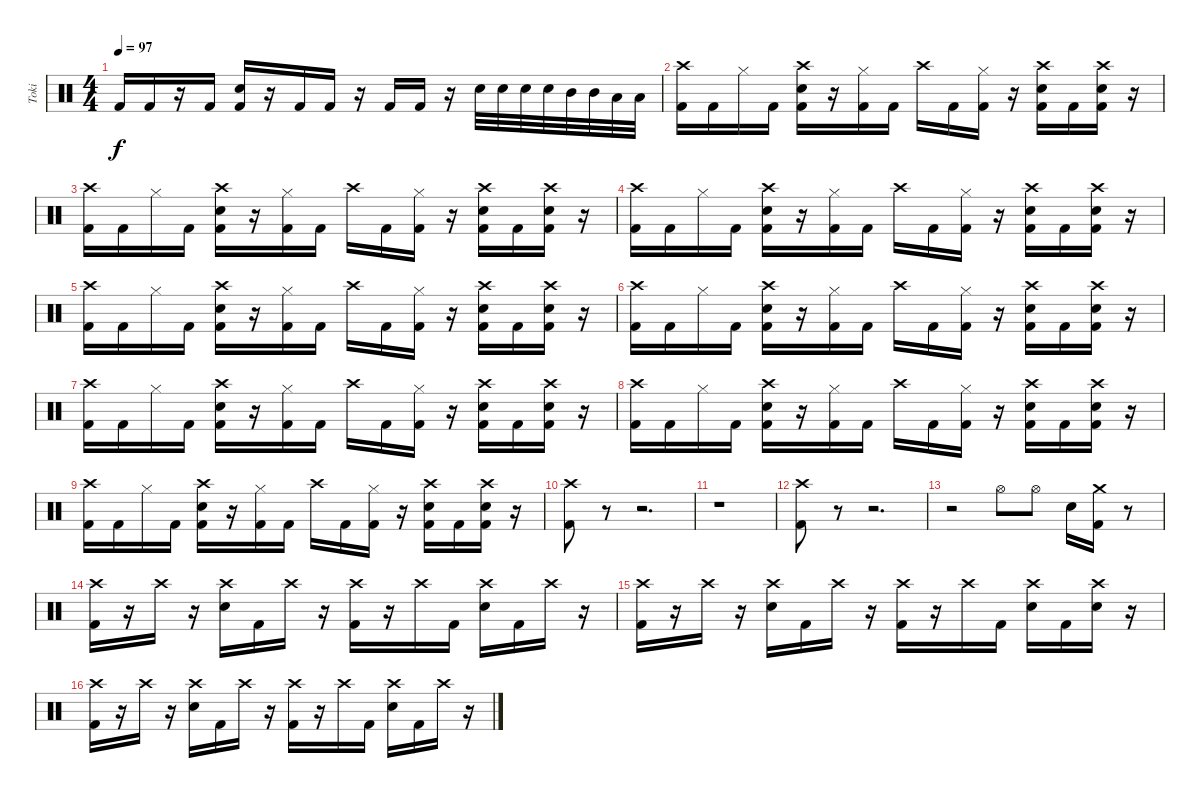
\track ("Toki" "Toki") {instrument percussion}
\staff {score}
\articulation defaults
\ts (4 4)
\tempo 97
\clef neutral
\ks c "Kick (hit) 2".16{dy f} "Kick (hit) 2".16
r.16 "Kick (hit) 2".16 ("Electric Snare (hit)" "Kick (hit) 2").16 r.16 "Kick (hit) 2".16 "Kick (hit) 2".16 r.16 "Kick (hit) 2".16 "Kick (hit) 2".16 r.16 "Electric Snare (hit)".32 "Electric Snare (hit)".32 "Electric Snare (hit)".32 "Electric Snare (hit)".32 "Mid Tom (hit)".32 "Mid Tom (hit)".32 "Low Tom (hit)".32 "Low Tom (hit)".32 |
\section ("" "")
("Crash high (hit)" "Kick (hit) 2").16 "Kick (hit) 2".16 "Hi-Hat (closed)".16 "Kick (hit) 2".16 ("Crash high (hit)" "Electric Snare (hit)" "Kick (hit) 2").16 r.16 ("Hi-Hat (closed)" "Kick (hit) 2").16 "Kick (hit) 2".16 "Crash high (hit)".16 "Kick (hit) 2".16 ("Hi-Hat (closed)" "Kick (hit) 2").16 r.16 ("Crash high (hit)" "Electric Snare (hit)" "Kick (hit) 2").16 "Kick (hit) 2".16 ("Crash high (hit)" "Electric Snare (hit)" "Kick (hit) 2").16 r.16 |
("Crash high (hit)" "Kick (hit) 2").16 "Kick (hit) 2".16 "Hi-Hat (closed)".16 "Kick (hit) 2".16 ("Crash high (hit)" "Electric Snare (hit)" "Kick (hit) 2").16 r.16 ("Hi-Hat (closed)" "Kick (hit) 2").16 "Kick (hit) 2".16 "Crash high (hit)".16 "Kick (hit) 2".16 ("Hi-Hat (closed)" "Kick (hit) 2").16 r.16 ("Crash high (hit)" "Electric Snare (hit)" "Kick (hit) 2").16 "Kick (hit) 2".16 ("Crash high (hit)" "Electric Snare (hit)" "Kick (hit) 2").16 r.16 |
("Crash high (hit)" "Kick (hit) 2").16 "Kick (hit) 2".16 "Hi-Hat (closed)".16 "Kick (hit) 2".16 ("Crash high (hit)" "Electric Snare (hit)" "Kick (hit) 2").16 r.16 ("Hi-Hat (closed)" "Kick (hit) 2").16 "Kick (hit) 2".16 "Crash high (hit)".16 "Kick (hit) 2".16 ("Hi-Hat (closed)" "Kick (hit) 2").16 r.16 ("Crash high (hit)" "Electric Snare (hit)" "Kick (hit) 2").16 "Kick (hit) 2".16 ("Crash high (hit)" "Electric Snare (hit)" "Kick (hit) 2").16 r.16 |
("Crash high (hit)" "Kick (hit) 2").16 "Kick (hit) 2".16 "Hi-Hat (closed)".16 "Kick (hit) 2".16 ("Crash high (hit)" "Electric Snare (hit)" "Kick (hit) 2").16 r.16 ("Hi-Hat (closed)" "Kick (hit) 2").16 "Kick (hit) 2".16 "Crash high (hit)".16 "Kick (hit) 2".16 ("Hi-Hat (closed)" "Kick (hit) 2").16 r.16 ("Crash high (hit)" "Electric Snare (hit)" "Kick (hit) 2").16 "Kick (hit) 2".16 ("Crash high (hit)" "Electric Snare (hit)" "Kick (hit) 2").16 r.16 |
("Crash high (hit)" "Kick (hit) 2").16 "Kick (hit) 2".16 "Hi-Hat (closed)".16 "Kick (hit) 2".16 ("Crash high (hit)" "Electric Snare (hit)" "Kick (hit) 2").16 r.16 ("Hi-Hat (closed)" "Kick (hit) 2").16 "Kick (hit) 2".16 "Crash high (hit)".16 "Kick (hit) 2".16 ("Hi-Hat (closed)" "Kick (hit) 2").16 r.16 ("Crash high (hit)" "Electric Snare (hit)" "Kick (hit) 2").16 "Kick (hit) 2".16 ("Crash high (hit)" "Electric Snare (hit)" "Kick (hit) 2").16 r.16 |
("Crash high (hit)" "Kick (hit) 2").16 "Kick (hit) 2".16 "Hi-Hat (closed)".16 "Kick (hit) 2".16 ("Crash high (hit)" "Electric Snare (hit)" "Kick (hit) 2").16 r.16 ("Hi-Hat (closed)" "Kick (hit) 2").16 "Kick (hit) 2".16 "Crash high (hit)".16 "Kick (hit) 2".16 ("Hi-Hat (closed)" "Kick (hit) 2").16 r.16 ("Crash high (hit)" "Electric Snare (hit)" "Kick (hit) 2").16 "Kick (hit) 2".16 ("Crash high (hit)" "Electric Snare (hit)" "Kick (hit) 2").16 r.16 |
("Crash high (hit)" "Kick (hit) 2").16 "Kick (hit) 2".16 "Hi-Hat (closed)".16 "Kick (hit) 2".16 ("Crash high (hit)" "Electric Snare (hit)" "Kick (hit) 2").16 r.16 ("Hi-Hat (closed)" "Kick (hit) 2").16 "Kick (hit) 2".16 "Crash high (hit)".16 "Kick (hit) 2".16 ("Hi-Hat (closed)" "Kick (hit) 2").16 r.16 ("Crash high (hit)" "Electric Snare (hit)" "Kick (hit) 2").16 "Kick (hit) 2".16 ("Crash high (hit)" "Electric Snare (hit)" "Kick (hit) 2").16 r.16 |
("Crash high (hit)" "Kick (hit) 2").16 "Kick (hit) 2".16 "Hi-Hat (closed)".16 "Kick (hit) 2".16 ("Crash high (hit)" "Electric Snare (hit)" "Kick (hit) 2").16 r.16 ("Hi-Hat (closed)" "Kick (hit) 2").16 "Kick (hit) 2".16 "Crash high (hit)".16 "Kick (hit) 2".16 ("Hi-Hat (closed)" "Kick (hit) 2").16 r.16 ("Crash high (hit)" "Electric Snare (hit)" "Kick (hit) 2").16 "Kick (hit) 2".16 ("Crash high (hit)" "Electric Snare (hit)" "Kick (hit) 2").16 r.16 |
\section ("" "")
("Crash high (hit)" "Kick (hit) 2").8 r.8 r.2{d} |
r.1 |
("Crash high (hit)" "Kick (hit) 2").8 r.8 r.2{d} |
r.2 "Hi-Hat (open)".8 "Hi-Hat (open)".8 "Electric Snare (hit)".16 ("Crash medium (hit)" "Kick (hit) 2").16 r.8 |
\section ("" "")
("Crash high (hit)" "Kick (hit) 2").16 r.16 "Crash high (hit)".16 r.16 ("Crash high (hit)" "Electric Snare (hit)").16 "Kick (hit) 2".16 "Crash high (hit)".16 r.16 ("Crash high (hit)" "Kick (hit) 2").16 r.16 "Crash high (hit)".16 "Kick (hit) 2".16 ("Crash high (hit)" "Electric Snare (hit)").16 "Kick (hit) 2".16 "Crash high (hit)".16 r.16 |
("Crash high (hit)" "Kick (hit) 2").16 r.16 "Crash high (hit)".16 r.16 ("Crash high (hit)" "Electric Snare (hit)").16 "Kick (hit) 2".16 "Crash high (hit)".16 r.16 ("Crash high (hit)" "Kick (hit) 2").16 r.16 "Crash high (hit)".16 "Kick (hit) 2".16 ("Crash high (hit)" "Electric Snare (hit)").16 "Kick (hit) 2".16 ("Crash high (hit)" "Electric Snare (hit)").16 r.16 |
("Crash high (hit)" "Kick (hit) 2").16 r.16 "Crash high (hit)".16 r.16 ("Crash high (hit)" "Electric Snare (hit)").16 "Kick (hit) 2".16 "Crash high (hit)".16 r.16 ("Crash high (hit)" "Kick (hit) 2").16 r.16 "Crash high (hit)".16 "Kick (hit) 2".16 ("Crash high (hit)" "Electric Snare (hit)").16 "Kick (hit) 2".16 "Crash high (hit)".16 r.16
